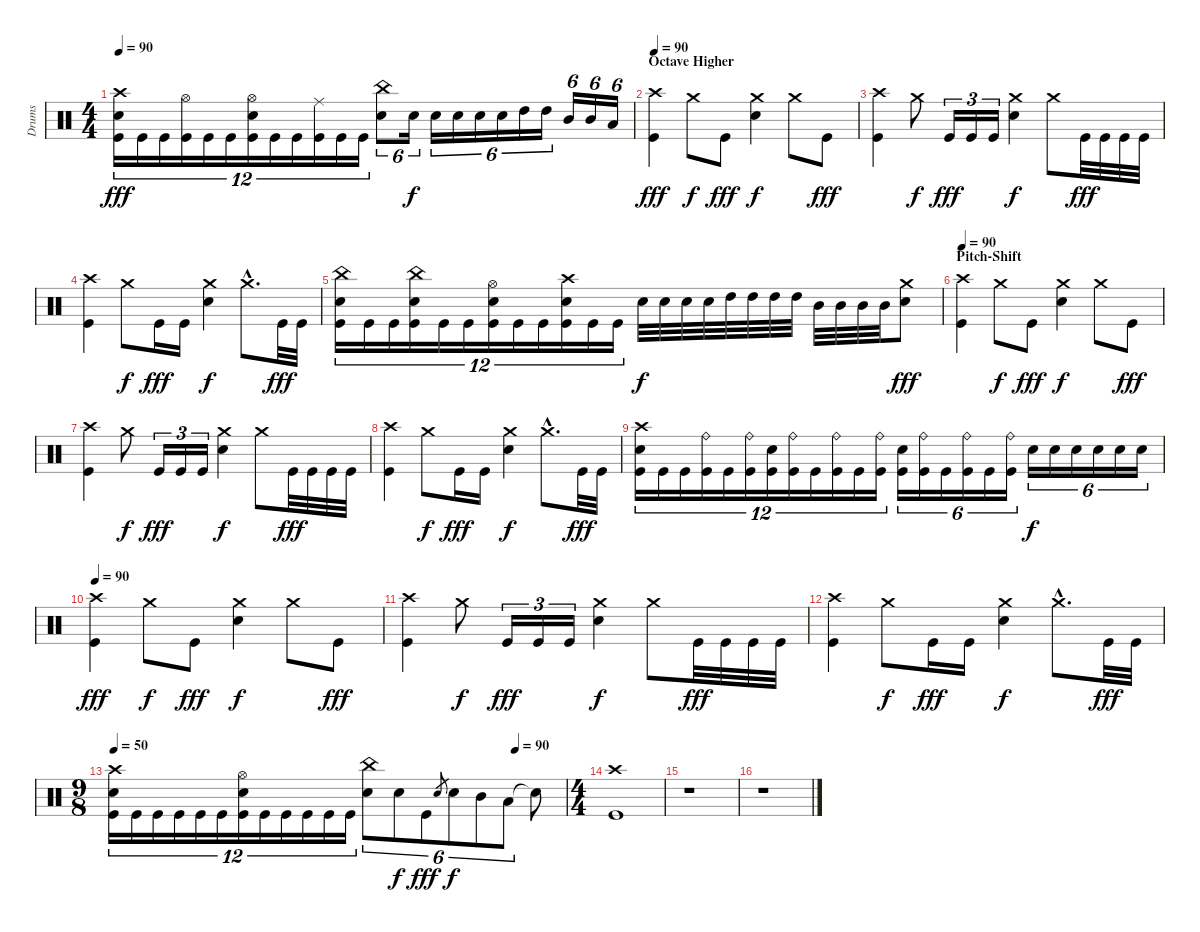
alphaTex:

\track ("Drums" "Drums") {instrument percussion}
\staff {score}
\articulation defaults
\ts (4 4)
\tempo 90
\clef neutral
\ks c
("Crash high (hit)" "Electric Snare (hit)" "Kick (hit)").16{tu (12 8) dy fff} "Kick (hit)".16{tu (12 8)} "Kick (hit)".16{tu (12 8)} ("Hi-Hat (open)" "Kick (hit)").16{tu (12 8)} "Kick (hit)".16{tu (12 8)} "Kick (hit)".16{tu (12 8)} ("Hi-Hat (open)" "Electric Snare (hit)" "Kick (hit)").16{tu (12 8)} "Kick (hit)".16{tu (12 8)} "Kick (hit)".16{tu (12 8)} ("Ride (middle)" "Kick (hit)").16{tu (12 8)} "Kick (hit)".16{tu (12 8)} "Kick (hit)".16{tu (12 8)} ("China (hit)" "Electric Snare (hit)").8{tu (6 4)} "Electric Snare (hit)".16{tu (6 4) dy f} "Electric Snare (hit)".16{tu (6 4)} "Electric Snare (hit)".16{tu (6 4)} "Electric Snare (hit)".16{tu (6 4)} "Electric Snare (hit)".16{tu (6 4)} "High Tom (hit)".16{tu (6 4)} "High Tom (hit)".16{tu (6 4)} "Mid Tom (hit)".16{tu (6 4)} "Mid Tom (hit)".16{tu (6 4)} "Low Tom (hit)".16{tu (6 4)} |
\section ("" "Octave Higher")
\tempo 90
("Crash high (hit)" "Kick (hit)").4{dy fff} "Crash medium (hit)".8{dy f} "Kick (hit)".8{dy fff} ("Crash medium (hit)" "Electric Snare (hit)").4{dy f} "Crash medium (hit)".8 "Kick (hit)".8{dy fff} |
("Crash high (hit)" "Kick (hit)").4 "Crash medium (hit)".8{dy f} "Kick (hit)".16{tu (3 2) dy fff} "Kick (hit)".16{tu (3 2)} "Kick (hit)".16{tu (3 2)} ("Crash medium (hit)" "Electric Snare (hit)").4{dy f} "Crash medium (hit)".8 "Kick (hit)".32{dy fff} "Kick (hit)".32 "Kick (hit)".32 "Kick (hit)".32 |
("Crash high (hit)" "Kick (hit)").4 "Crash medium (hit)".8{dy f} "Kick (hit)".16{dy fff} "Kick (hit)".16 ("Crash medium (hit)" "Electric Snare (hit)").4{dy f} "Crash medium (hit)"{hac}.8{d} "Kick (hit)".32{dy fff} "Kick (hit)".32 |
("China (hit)" "Electric Snare (hit)" "Kick (hit)").16{tu (12 8)} "Kick (hit)".16{tu (12 8)} "Kick (hit)".16{tu (12 8)} ("China (hit)" "Electric Snare (hit)" "Kick (hit)").16{tu (12 8)} "Kick (hit)".16{tu (12 8)} "Kick (hit)".16{tu (12 8)} ("Hi-Hat (open)" "Electric Snare (hit)" "Kick (hit)").16{tu (12 8)} "Kick (hit)".16{tu (12 8)} "Kick (hit)".16{tu (12 8)} ("Crash high (hit)" "Electric Snare (hit)" "Kick (hit)").16{tu (12 8)} "Kick (hit)".16{tu (12 8)} "Kick (hit)".16{tu (12 8)} "Electric Snare (hit)".32{dy f} "Electric Snare (hit)".32 "Electric Snare (hit)".32 "Electric Snare (hit)".32 "High Tom (hit)".32 "High Tom (hit)".32 "High Tom (hit)".32 "High Tom (hit)".32 "Mid Tom (hit)".32 "Mid Tom (hit)".32 "Mid Tom (hit)".32 "Mid Tom (hit)".32 ("Crash medium (hit)" "Electric Snare (hit)").8{dy fff} |
\section ("" "Pitch-Shift")
\tempo 90
("Crash high (hit)" "Kick (hit)").4 "Crash medium (hit)".8{dy f} "Kick (hit)".8{dy fff} ("Crash medium (hit)" "Electric Snare (hit)").4{dy f} "Crash medium (hit)".8 "Kick (hit)".8{dy fff} |
("Crash high (hit)" "Kick (hit)").4 "Crash medium (hit)".8{dy f} "Kick (hit)".16{tu (3 2) dy fff} "Kick (hit)".16{tu (3 2)} "Kick (hit)".16{tu (3 2)} ("Crash medium (hit)" "Electric Snare (hit)").4{dy f} "Crash medium (hit)".8 "Kick (hit)".32{dy fff} "Kick (hit)".32 "Kick (hit)".32 "Kick (hit)".32 |
("Crash high (hit)" "Kick (hit)").4 "Crash medium (hit)".8{dy f} "Kick (hit)".16{dy fff} "Kick (hit)".16 ("Crash medium (hit)" "Electric Snare (hit)").4{dy f} "Crash medium (hit)"{hac}.8{d} "Kick (hit)".32{dy fff} "Kick (hit)".32 |
("Crash high (hit)" "Electric Snare (hit)" "Kick (hit)").16{tu (12 8)} "Kick (hit)".16{tu (12 8)} "Kick (hit)".16{tu (12 8)} ("Ride (bell)" "Kick (hit)").16{tu (12 8)} "Kick (hit)".16{tu (12 8)} ("Ride (bell)" "Kick (hit)").16{tu (12 8)} ("Electric Snare (hit)" "Kick (hit)").16{tu (12 8)} ("Ride (bell)" "Kick (hit)").16{tu (12 8)} "Kick (hit)".16{tu (12 8)} ("Ride (bell)" "Kick (hit)").16{tu (12 8)} "Kick (hit)".16{tu (12 8)} ("Ride (bell)" "Kick (hit)").16{tu (12 8)} ("Electric Snare (hit)" "Kick (hit)").16{tu (6 4)} ("Ride (bell)" "Kick (hit)").16{tu (6 4)} "Kick (hit)".16{tu (6 4)} ("Ride (bell)" "Kick (hit)").16{tu (6 4)} "Kick (hit)".16{tu (6 4)} ("Ride (bell)" "Kick (hit)").16{tu (6 4)} "Electric Snare (hit)".16{tu (6 4) dy f} "Electric Snare (hit)".16{tu (6 4)} "Electric Snare (hit)".16{tu (6 4)} "Electric Snare (hit)".16{tu (6 4)} "Electric Snare (hit)".16{tu (6 4)} "Electric Snare (hit)".16{tu (6 4)} |
\tempo 90
("Crash high (hit)" "Kick (hit)").4{dy fff} "Crash medium (hit)".8{dy f} "Kick (hit)".8{dy fff} ("Crash medium (hit)" "Electric Snare (hit)").4{dy f} "Crash medium (hit)".8 "Kick (hit)".8{dy fff} |
("Crash high (hit)" "Kick (hit)").4 "Crash medium (hit)".8{dy f} "Kick (hit)".16{tu (3 2) dy fff} "Kick (hit)".16{tu (3 2)} "Kick (hit)".16{tu (3 2)} ("Crash medium (hit)" "Electric Snare (hit)").4{dy f} "Crash medium (hit)".8 "Kick (hit)".32{dy fff} "Kick (hit)".32 "Kick (hit)".32 "Kick (hit)".32 |
("Crash high (hit)" "Kick (hit)").4 "Crash medium (hit)".8{dy f} "Kick (hit)".16{dy fff} "Kick (hit)".16 ("Crash medium (hit)" "Electric Snare (hit)").4{dy f} "Crash medium (hit)"{hac}.8{d} "Kick (hit)".32{dy fff} "Kick (hit)".32 |
\ts (9 8)
\tempo 50
\tempo (90 0.8888888888888888)
("Crash high (hit)" "Electric Snare (hit)" "Kick (hit)").16{tu (12 8)} "Kick (hit)".16{tu (12 8)} "Kick (hit)".16{tu (12 8)} "Kick (hit)".16{tu (12 8)} "Kick (hit)".16{tu (12 8)} "Kick (hit)".16{tu (12 8)} ("Hi-Hat (open)" "Electric Snare (hit)" "Kick (hit)").16{tu (12 8)} "Kick (hit)".16{tu (12 8)} "Kick (hit)".16{tu (12 8)} "Kick (hit)".16{tu (12 8)} "Kick (hit)".16{tu (12 8)} "Kick (hit)".16{tu (12 8)} ("China (hit)" "Electric Snare (hit)").8{tu (6 4)} "Electric Snare (hit)".8{tu (6 4) dy f} "Kick (hit)".8{tu (6 4) dy fff} "Electric Snare (hit)".8{gr} "Electric Snare (hit)".8{tu (6 4) dy f} "Mid Tom (hit)".8{tu (6 4)} "Low Tom (hit)".8{tu (6 4)} "Snare (hit)"{t}.8 |
\ts (4 4)
("Crash high (hit)" "Kick (hit)").1 |
r.1 |
r.1
